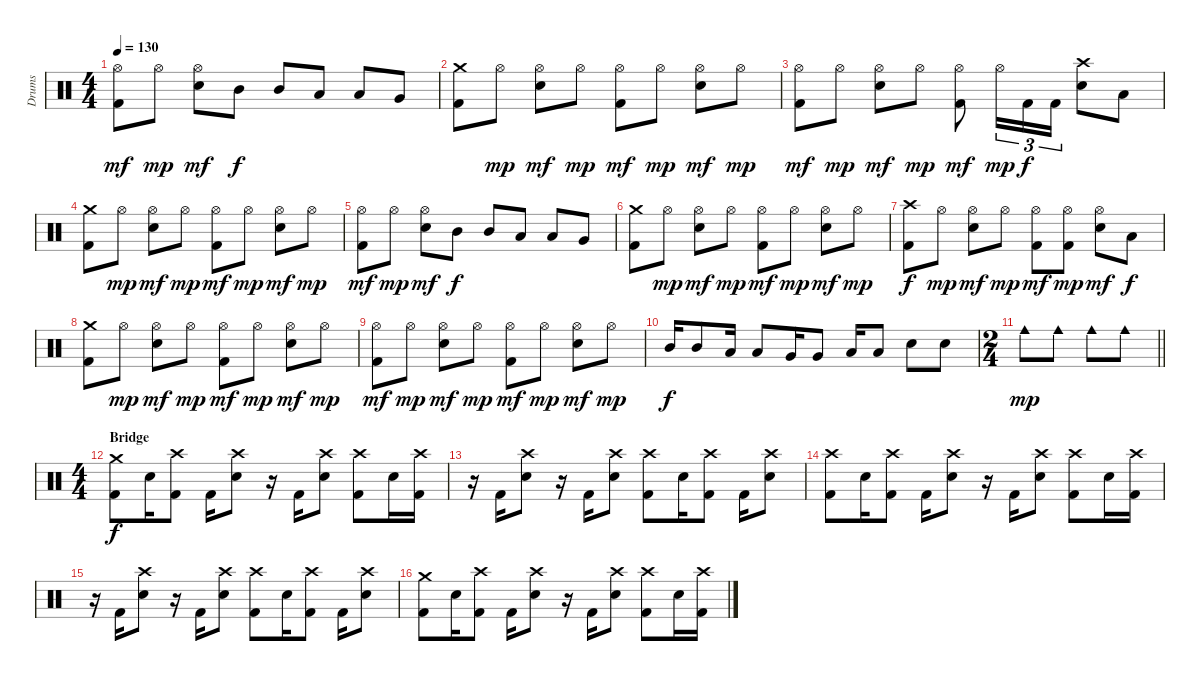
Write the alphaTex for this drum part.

\track ("Drums" "Drums") {instrument percussion}
\staff {score}
\articulation defaults
\ts (4 4)
\tempo 130
\clef neutral
\ks c
("Kick (hit) 2" "Hi-Hat (open)").8{dy mf} "Hi-Hat (open)".8{dy mp} ("Hi-Hat (open)" "Electric Snare (hit)").8{dy mf} "Mid Tom (hit)".8{dy f} "Mid Tom (hit)".8 "Low Tom (hit)".8 "Low Tom (hit)".8 "Very Low Tom (hit)".8 |
("Kick (hit) 2" "Crash medium (hit)").8 "Hi-Hat (open)".8{dy mp} ("Hi-Hat (open)" "Electric Snare (hit)").8{dy mf} "Hi-Hat (open)".8{dy mp} ("Kick (hit) 2" "Hi-Hat (open)").8{dy mf} "Hi-Hat (open)".8{dy mp} ("Hi-Hat (open)" "Electric Snare (hit)").8{dy mf} "Hi-Hat (open)".8{dy mp} |
("Kick (hit) 2" "Hi-Hat (open)").8{dy mf} "Hi-Hat (open)".8{dy mp} ("Hi-Hat (open)" "Electric Snare (hit)").8{dy mf} "Hi-Hat (open)".8{dy mp} ("Kick (hit) 2" "Hi-Hat (open)").8{dy mf} "Hi-Hat (open)".16{tu (3 2) dy mp} "Kick (hit) 2".16{tu (3 2) dy f} "Kick (hit) 2".16{tu (3 2)} ("Crash high (hit)" "Electric Snare (hit)").8 "Low Tom (hit)".8 |
("Kick (hit) 2" "Crash medium (hit)").8 "Hi-Hat (open)".8{dy mp} ("Hi-Hat (open)" "Electric Snare (hit)").8{dy mf} "Hi-Hat (open)".8{dy mp} ("Kick (hit) 2" "Hi-Hat (open)").8{dy mf} "Hi-Hat (open)".8{dy mp} ("Hi-Hat (open)" "Electric Snare (hit)").8{dy mf} "Hi-Hat (open)".8{dy mp} |
("Kick (hit) 2" "Hi-Hat (open)").8{dy mf} "Hi-Hat (open)".8{dy mp} ("Hi-Hat (open)" "Electric Snare (hit)").8{dy mf} "Mid Tom (hit)".8{dy f} "Mid Tom (hit)".8 "Low Tom (hit)".8 "Low Tom (hit)".8 "Very Low Tom (hit)".8 |
("Kick (hit) 2" "Crash medium (hit)").8 "Hi-Hat (open)".8{dy mp} ("Hi-Hat (open)" "Electric Snare (hit)").8{dy mf} "Hi-Hat (open)".8{dy mp} ("Kick (hit) 2" "Hi-Hat (open)").8{dy mf} "Hi-Hat (open)".8{dy mp} ("Hi-Hat (open)" "Electric Snare (hit)").8{dy mf} "Hi-Hat (open)".8{dy mp} |
("Kick (hit) 2" "Crash high (hit)").8{dy f} "Hi-Hat (open)".8{dy mp} ("Hi-Hat (open)" "Electric Snare (hit)").8{dy mf} "Hi-Hat (open)".8{dy mp} ("Kick (hit) 2" "Hi-Hat (open)").8{dy mf} ("Kick (hit) 2" "Hi-Hat (open)").8{dy mp} ("Hi-Hat (open)" "Electric Snare (hit)").8{dy mf} "Low Tom (hit)".8{dy f} |
("Kick (hit) 2" "Crash medium (hit)").8 "Hi-Hat (open)".8{dy mp} ("Hi-Hat (open)" "Electric Snare (hit)").8{dy mf} "Hi-Hat (open)".8{dy mp} ("Kick (hit) 2" "Hi-Hat (open)").8{dy mf} "Hi-Hat (open)".8{dy mp} ("Hi-Hat (open)" "Electric Snare (hit)").8{dy mf} "Hi-Hat (open)".8{dy mp} |
("Kick (hit) 2" "Hi-Hat (open)").8{dy mf} "Hi-Hat (open)".8{dy mp} ("Hi-Hat (open)" "Electric Snare (hit)").8{dy mf} "Hi-Hat (open)".8{dy mp} ("Kick (hit) 2" "Hi-Hat (open)").8{dy mf} "Hi-Hat (open)".8{dy mp} ("Hi-Hat (open)" "Electric Snare (hit)").8{dy mf} "Hi-Hat (open)".8{dy mp} |
"Mid Tom (hit)".16{dy f} "Mid Tom (hit)".8 "Low Tom (hit)".16 "Low Tom (hit)".8 "Very Low Tom (hit)".16 "Very Low Tom (hit)".8 "Low Floor Tom (hit)".16 "Low Floor Tom (hit)".8 "Electric Snare (hit)".8 "Electric Snare (hit)".8 |
\ts (2 4)
\barLineRight lightlight "Cowbell medium (hit)".8{dy mp} "Cowbell medium (hit)".8 "Cowbell medium (hit)".8 "Cowbell medium (hit)".8
|
\ts (4 4)
\section ("" "Bridge")
("Kick (hit) 2" "Crash medium (hit)").8{dy f} "Electric Snare (hit)".16 ("Kick (hit) 2" "Crash high (hit)").8 "Kick (hit) 2".16 ("Crash high (hit)" "Electric Snare (hit)").8 r.16 "Kick (hit) 2".16 ("Crash high (hit)" "Electric Snare (hit)").8 ("Kick (hit) 2" "Crash high (hit)").8 "Electric Snare (hit)".16 ("Kick (hit) 2" "Crash high (hit)").16 |
r.16 "Kick (hit) 2".16 ("Crash high (hit)" "Electric Snare (hit)").8 r.16 "Kick (hit) 2".16 ("Crash high (hit)" "Electric Snare (hit)").8 ("Kick (hit) 2" "Crash high (hit)").8 "Electric Snare (hit)".16 ("Kick (hit) 2" "Crash high (hit)").8 "Kick (hit) 2".16 ("Crash high (hit)" "Electric Snare (hit)").8 |
("Kick (hit) 2" "Crash high (hit)").8 "Electric Snare (hit)".16 ("Kick (hit) 2" "Crash high (hit)").8 "Kick (hit) 2".16 ("Crash high (hit)" "Electric Snare (hit)").8 r.16 "Kick (hit) 2".16 ("Crash high (hit)" "Electric Snare (hit)").8 ("Kick (hit) 2" "Crash high (hit)").8 "Electric Snare (hit)".16 ("Kick (hit) 2" "Crash high (hit)").16 |
r.16 "Kick (hit) 2".16 ("Crash high (hit)" "Electric Snare (hit)").8 r.16 "Kick (hit) 2".16 ("Crash high (hit)" "Electric Snare (hit)").8 ("Kick (hit) 2" "Crash high (hit)").8 "Electric Snare (hit)".16 ("Kick (hit) 2" "Crash high (hit)").8 "Kick (hit) 2".16 ("Crash high (hit)" "Electric Snare (hit)").8 |
("Kick (hit) 2" "Crash medium (hit)").8 "Electric Snare (hit)".16 ("Kick (hit) 2" "Crash high (hit)").8 "Kick (hit) 2".16 ("Crash high (hit)" "Electric Snare (hit)").8 r.16 "Kick (hit) 2".16 ("Crash high (hit)" "Electric Snare (hit)").8 ("Kick (hit) 2" "Crash high (hit)").8 "Electric Snare (hit)".16 ("Kick (hit) 2" "Crash high (hit)").16
